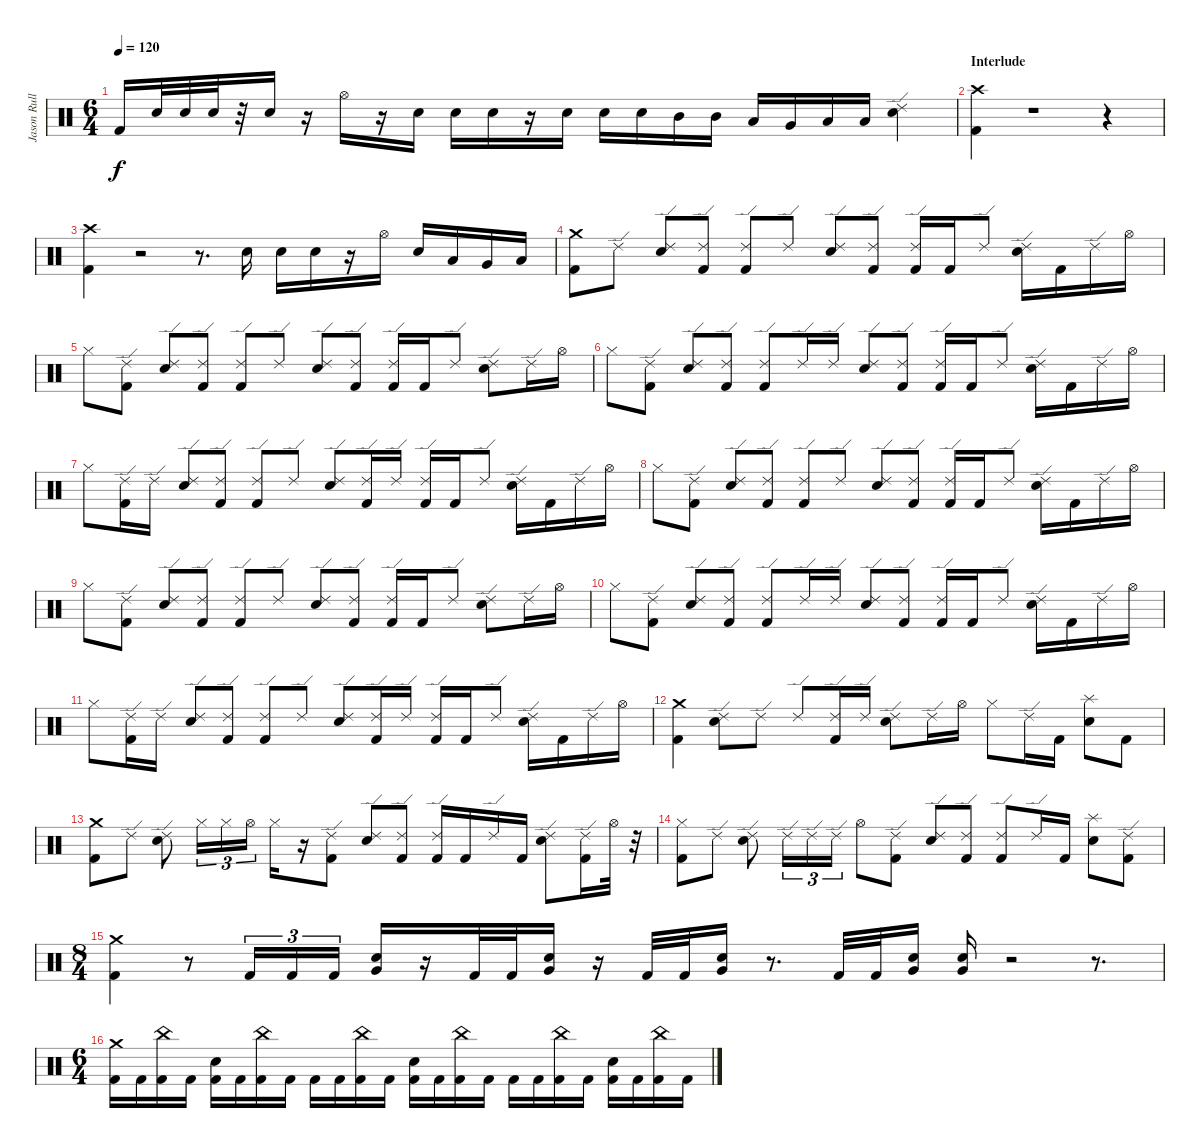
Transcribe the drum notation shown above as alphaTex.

\track ("Jason Rullo" "Jason Rull") {instrument percussion}
\staff {score}
\articulation defaults
\ts (6 4)
\tempo 120
\clef neutral
\ks c "Kick (hit) 2".16{dy f} "Electric Snare (hit)".32 "Electric Snare (hit)".32 "Electric Snare (hit)".32
r.32 "Electric Snare (hit)".16 r.16 "Hi-Hat (open)".16 r.16 "Electric Snare (hit)".16 "Electric Snare (hit)".16 "Electric Snare (hit)".16 r.16 "Electric Snare (hit)".16 "Electric Snare (hit)".16 "Electric Snare (hit)".16 "Mid Tom (hit)".16 "Mid Tom (hit)".16 "Low Tom (hit)".16 "Very Low Tom (hit)".16 "Low Floor Tom (hit)".16 "Low Floor Tom (hit)".16 ("Ride (edge) 2" "Electric Snare (hit)").4 |
\section ("" "Interlude")
("Crash high (hit)" "Kick (hit) 2").4 r.1 r.4 |
("Crash high (hit)" "Kick (hit) 2").4 r.2 r.8{d} "Electric Snare (hit)".16 "Electric Snare (hit)".16 "Electric Snare (hit)".16 r.16 "Hi-Hat (open)".16 "Electric Snare (hit)".16 "Low Tom (hit)".16 "Very Low Tom (hit)".16 "Low Floor Tom (hit)".16 |
("Crash medium (hit)" "Kick (hit) 2").8 "Ride (edge) 2".8 ("Ride (edge) 2" "Electric Snare (hit)").8 ("Ride (edge) 2" "Kick (hit) 2").8 ("Ride (edge) 2" "Kick (hit) 2").8 "Ride (edge) 2".8 ("Ride (edge) 2" "Electric Snare (hit)").8 ("Ride (edge) 2" "Kick (hit) 2").8 ("Ride (edge) 2" "Kick (hit) 2").16 "Kick (hit) 2".16 "Ride (edge) 2".8 ("Ride (edge) 2" "Electric Snare (hit)").16 "Kick (hit) 2".16 "Ride (edge) 2".16 "Hi-Hat (open)".16 |
"Hi-Hat (closed)".8 ("Kick (hit) 2" "Ride (edge) 2").8 ("Ride (edge) 2" "Electric Snare (hit)").8 ("Ride (edge) 2" "Kick (hit) 2").8 ("Ride (edge) 2" "Kick (hit) 2").8 "Ride (edge) 2".8 ("Ride (edge) 2" "Electric Snare (hit)").8 ("Ride (edge) 2" "Kick (hit) 2").8 ("Ride (edge) 2" "Kick (hit) 2").16 "Kick (hit) 2".16 "Ride (edge) 2".8 ("Ride (edge) 2" "Electric Snare (hit)").8 "Ride (edge) 2".16 "Hi-Hat (open)".16 |
"Hi-Hat (closed)".8 ("Kick (hit) 2" "Ride (edge) 2").8 ("Ride (edge) 2" "Electric Snare (hit)").8 ("Ride (edge) 2" "Kick (hit) 2").8 ("Ride (edge) 2" "Kick (hit) 2").8 "Ride (edge) 2".16 "Ride (edge) 2".16 ("Ride (edge) 2" "Electric Snare (hit)").8 ("Ride (edge) 2" "Kick (hit) 2").8 ("Ride (edge) 2" "Kick (hit) 2").16 "Kick (hit) 2".16 "Ride (edge) 2".8 ("Ride (edge) 2" "Electric Snare (hit)").16 "Kick (hit) 2".16 "Ride (edge) 2".16 "Hi-Hat (open)".16 |
"Hi-Hat (closed)".8 ("Kick (hit) 2" "Ride (edge) 2").16 "Ride (edge) 2".16 ("Ride (edge) 2" "Electric Snare (hit)").8 ("Ride (edge) 2" "Kick (hit) 2").8 ("Ride (edge) 2" "Kick (hit) 2").8 "Ride (edge) 2".8 ("Ride (edge) 2" "Electric Snare (hit)").8 ("Ride (edge) 2" "Kick (hit) 2").16 "Ride (edge) 2".16 ("Ride (edge) 2" "Kick (hit) 2").16 "Kick (hit) 2".16 "Ride (edge) 2".8 ("Ride (edge) 2" "Electric Snare (hit)").16 "Kick (hit) 2".16 "Ride (edge) 2".16 "Hi-Hat (open)".16 |
"Hi-Hat (closed)".8 ("Kick (hit) 2" "Ride (edge) 2").8 ("Ride (edge) 2" "Electric Snare (hit)").8 ("Ride (edge) 2" "Kick (hit) 2").8 ("Ride (edge) 2" "Kick (hit) 2").8 "Ride (edge) 2".8 ("Ride (edge) 2" "Electric Snare (hit)").8 ("Ride (edge) 2" "Kick (hit) 2").8 ("Ride (edge) 2" "Kick (hit) 2").16 "Kick (hit) 2".16 "Ride (edge) 2".8 ("Ride (edge) 2" "Electric Snare (hit)").16 "Kick (hit) 2".16 "Ride (edge) 2".16 "Hi-Hat (open)".16 |
"Hi-Hat (closed)".8 ("Kick (hit) 2" "Ride (edge) 2").8 ("Ride (edge) 2" "Electric Snare (hit)").8 ("Ride (edge) 2" "Kick (hit) 2").8 ("Ride (edge) 2" "Kick (hit) 2").8 "Ride (edge) 2".8 ("Ride (edge) 2" "Electric Snare (hit)").8 ("Ride (edge) 2" "Kick (hit) 2").8 ("Ride (edge) 2" "Kick (hit) 2").16 "Kick (hit) 2".16 "Ride (edge) 2".8 ("Ride (edge) 2" "Electric Snare (hit)").8 "Ride (edge) 2".16 "Hi-Hat (open)".16 |
"Hi-Hat (closed)".8 ("Kick (hit) 2" "Ride (edge) 2").8 ("Ride (edge) 2" "Electric Snare (hit)").8 ("Ride (edge) 2" "Kick (hit) 2").8 ("Ride (edge) 2" "Kick (hit) 2").8 "Ride (edge) 2".16 "Ride (edge) 2".16 ("Ride (edge) 2" "Electric Snare (hit)").8 ("Ride (edge) 2" "Kick (hit) 2").8 ("Ride (edge) 2" "Kick (hit) 2").16 "Kick (hit) 2".16 "Ride (edge) 2".8 ("Ride (edge) 2" "Electric Snare (hit)").16 "Kick (hit) 2".16 "Ride (edge) 2".16 "Hi-Hat (open)".16 |
"Hi-Hat (closed)".8 ("Kick (hit) 2" "Ride (edge) 2").16 "Ride (edge) 2".16 ("Ride (edge) 2" "Electric Snare (hit)").8 ("Ride (edge) 2" "Kick (hit) 2").8 ("Ride (edge) 2" "Kick (hit) 2").8 "Ride (edge) 2".8 ("Ride (edge) 2" "Electric Snare (hit)").8 ("Ride (edge) 2" "Kick (hit) 2").16 "Ride (edge) 2".16 ("Ride (edge) 2" "Kick (hit) 2").16 "Kick (hit) 2".16 "Ride (edge) 2".8 ("Ride (edge) 2" "Electric Snare (hit)").16 "Kick (hit) 2".16 "Ride (edge) 2".16 "Hi-Hat (open)".16 |
("Crash medium (hit)" "Kick (hit) 2").4 ("Ride (edge) 2" "Electric Snare (hit)").8 "Ride (edge) 2".8 "Ride (edge) 2".8 ("Kick (hit) 2" "Ride (edge) 2").16 "Ride (edge) 2".16 ("Electric Snare (hit)" "Ride (edge) 2").8 "Ride (edge) 2".16 "Hi-Hat (open)".16 "Hi-Hat (closed)".8 "Ride (edge) 2".16 "Kick (hit) 2".16 ("Splash (hit)" "Electric Snare (hit)").8 "Kick (hit) 2".8 |
("Crash medium (hit)" "Kick (hit) 2").8 "Ride (edge) 2".8 ("Ride (edge) 2" "Electric Snare (hit)").8 "Hi-Hat (closed)".16{tu (3 2)} "Hi-Hat (closed)".16{tu (3 2)} "Hi-Hat (open)".16{tu (3 2)} "Hi-Hat (closed)".16 r.16 ("Ride (edge) 2" "Kick (hit) 2").8 ("Ride (edge) 2" "Electric Snare (hit)").8 ("Ride (edge) 2" "Kick (hit) 2").8 ("Ride (edge) 2" "Kick (hit) 2").16 "Kick (hit) 2".16 "Ride (edge) 2".16 "Kick (hit) 2".16 ("Ride (edge) 2" "Electric Snare (hit)").8 ("Ride (edge) 2" "Kick (hit) 2").16 "Hi-Hat (open)".32 r.32 |
("Hi-Hat (closed)" "Kick (hit) 2").8 "Ride (edge) 2".8 ("Ride (edge) 2" "Electric Snare (hit)").8 "Ride (edge) 2".16{tu (3 2)} "Ride (edge) 2".16{tu (3 2)} "Ride (edge) 2".16{tu (3 2)} "Hi-Hat (open)".8 ("Ride (edge) 2" "Kick (hit) 2").8 ("Ride (edge) 2" "Electric Snare (hit)").8 ("Ride (edge) 2" "Kick (hit) 2").8 ("Ride (edge) 2" "Kick (hit) 2").8 "Ride (edge) 2".16 "Kick (hit) 2".16 ("Splash (hit)" "Electric Snare (hit)").8 ("Ride (edge) 2" "Kick (hit) 2").8 |
\ts (8 4)
("Crash medium (hit)" "Kick (hit) 2").4 r.8 "Kick (hit) 2".16{tu (3 2)} "Kick (hit) 2".16{tu (3 2)} "Kick (hit) 2".16{tu (3 2)} ("Very Low Tom (hit)" "Electric Snare (hit)").16 r.16 "Kick (hit) 2".32 "Kick (hit) 2".32 ("Very Low Tom (hit)" "Electric Snare (hit)").16 r.16 "Kick (hit) 2".32 "Kick (hit) 2".32 ("Very Low Tom (hit)" "Electric Snare (hit)").16 r.8{d} "Kick (hit) 2".32 "Kick (hit) 2".32 ("Very Low Tom (hit)" "Electric Snare (hit)").16 ("Very Low Tom (hit)" "Electric Snare (hit)").16 r.2 r.8{d} |
\ts (6 4)
("Crash medium (hit)" "Kick (hit) 2").16 "Kick (hit) 2".16 ("China (hit)" "Kick (hit) 2").16 "Kick (hit) 2".16 ("Electric Snare (hit)" "Kick (hit) 2").16 "Kick (hit) 2".16 ("China (hit)" "Kick (hit) 2").16 "Kick (hit) 2".16 "Kick (hit) 2".16 "Kick (hit) 2".16 ("China (hit)" "Kick (hit) 2").16 "Kick (hit) 2".16 ("Electric Snare (hit)" "Kick (hit) 2").16 "Kick (hit) 2".16 ("China (hit)" "Kick (hit) 2").16 "Kick (hit) 2".16 "Kick (hit) 2".16 "Kick (hit) 2".16 ("China (hit)" "Kick (hit) 2").16 "Kick (hit) 2".16 ("Electric Snare (hit)" "Kick (hit) 2").16 "Kick (hit) 2".16 ("China (hit)" "Kick (hit) 2").16 "Kick (hit) 2".16
